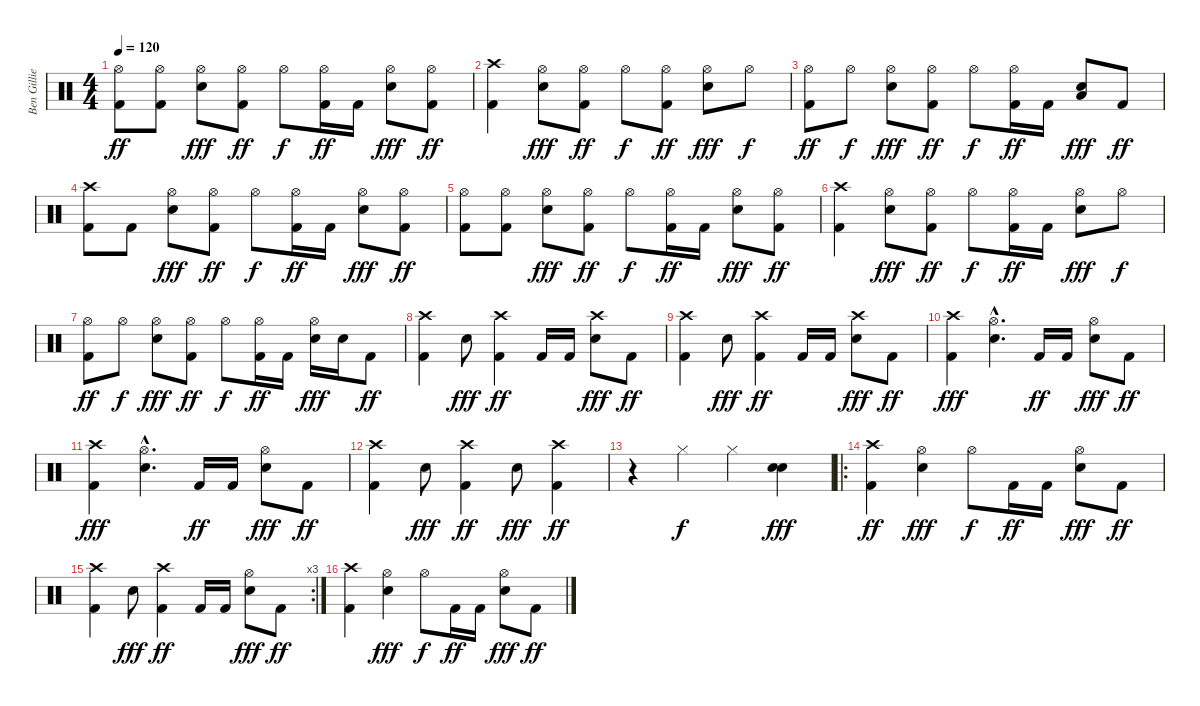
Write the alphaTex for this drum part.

\track ("Ben Gillies" "Ben Gillie") {instrument percussion}
\staff {score}
\articulation defaults
\ts (4 4)
\tempo 120
\clef neutral
\ks c
("Hi-Hat (open)" "Kick (hit) 2").8{dy ff} ("Hi-Hat (open)" "Kick (hit) 2").8 ("Hi-Hat (open)" "Electric Snare (hit)").8{dy fff} ("Hi-Hat (open)" "Kick (hit) 2").8{dy ff} "Hi-Hat (open)".8{dy f} ("Hi-Hat (open)" "Kick (hit) 2").16{dy ff} "Kick (hit) 2".16 ("Hi-Hat (open)" "Electric Snare (hit)").8{dy fff} ("Hi-Hat (open)" "Kick (hit) 2").8{dy ff} |
("Crash high (hit)" "Kick (hit) 2").4 ("Hi-Hat (open)" "Electric Snare (hit)").8{dy fff} ("Hi-Hat (open)" "Kick (hit) 2").8{dy ff} "Hi-Hat (open)".8{dy f} ("Hi-Hat (open)" "Kick (hit) 2").8{dy ff} ("Hi-Hat (open)" "Electric Snare (hit)").8{dy fff} "Hi-Hat (open)".8{dy f} |
("Hi-Hat (open)" "Kick (hit) 2").8{dy ff} "Hi-Hat (open)".8{dy f} ("Hi-Hat (open)" "Electric Snare (hit)").8{dy fff} ("Hi-Hat (open)" "Kick (hit) 2").8{dy ff} "Hi-Hat (open)".8{dy f} ("Hi-Hat (open)" "Kick (hit) 2").16{dy ff} "Kick (hit) 2".16 ("Low Floor Tom (hit)" "Electric Snare (hit)").8{dy fff} "Kick (hit) 2".8{dy ff} |
("Crash high (hit)" "Kick (hit) 2").8 "Kick (hit) 2".8 ("Hi-Hat (open)" "Electric Snare (hit)").8{dy fff} ("Hi-Hat (open)" "Kick (hit) 2").8{dy ff} "Hi-Hat (open)".8{dy f} ("Hi-Hat (open)" "Kick (hit) 2").16{dy ff} "Kick (hit) 2".16 ("Hi-Hat (open)" "Electric Snare (hit)").8{dy fff} ("Hi-Hat (open)" "Kick (hit) 2").8{dy ff} |
("Hi-Hat (open)" "Kick (hit) 2").8 ("Hi-Hat (open)" "Kick (hit) 2").8 ("Hi-Hat (open)" "Electric Snare (hit)").8{dy fff} ("Hi-Hat (open)" "Kick (hit) 2").8{dy ff} "Hi-Hat (open)".8{dy f} ("Hi-Hat (open)" "Kick (hit) 2").16{dy ff} "Kick (hit) 2".16 ("Hi-Hat (open)" "Electric Snare (hit)").8{dy fff} ("Hi-Hat (open)" "Kick (hit) 2").8{dy ff} |
("Crash high (hit)" "Kick (hit) 2").4 ("Hi-Hat (open)" "Electric Snare (hit)").8{dy fff} ("Hi-Hat (open)" "Kick (hit) 2").8{dy ff} "Hi-Hat (open)".8{dy f} ("Hi-Hat (open)" "Kick (hit) 2").16{dy ff} "Kick (hit) 2".16 ("Hi-Hat (open)" "Electric Snare (hit)").8{dy fff} "Hi-Hat (open)".8{dy f} |
("Hi-Hat (open)" "Kick (hit) 2").8{dy ff} "Hi-Hat (open)".8{dy f} ("Hi-Hat (open)" "Electric Snare (hit)").8{dy fff} ("Hi-Hat (open)" "Kick (hit) 2").8{dy ff} "Hi-Hat (open)".8{dy f} ("Hi-Hat (open)" "Kick (hit) 2").16{dy ff} "Kick (hit) 2".16 ("Hi-Hat (open)" "Electric Snare (hit)").16{dy fff} "Electric Snare (hit)".16 "Kick (hit) 2".8{dy ff} |
("Crash high (hit)" "Kick (hit) 2").4 "Electric Snare (hit)".8{dy fff} ("Crash high (hit)" "Kick (hit) 2").4{dy ff} "Kick (hit) 2".16 "Kick (hit) 2".16 ("Crash high (hit)" "Electric Snare (hit)").8{dy fff} "Kick (hit) 2".8{dy ff} |
("Crash high (hit)" "Kick (hit) 2").4 "Electric Snare (hit)".8{dy fff} ("Crash high (hit)" "Kick (hit) 2").4{dy ff} "Kick (hit) 2".16 "Kick (hit) 2".16 ("Crash high (hit)" "Electric Snare (hit)").8{dy fff} "Kick (hit) 2".8{dy ff} |
("Crash high (hit)" "Kick (hit) 2").4{dy fff} ("Hi-Hat (open)"{hac} "Electric Snare (hit)"{hac}).4{d} "Kick (hit) 2".16{dy ff} "Kick (hit) 2".16 ("Hi-Hat (open)" "Electric Snare (hit)").8{dy fff} "Kick (hit) 2".8{dy ff} |
("Crash high (hit)" "Kick (hit) 2").4{dy fff} ("Hi-Hat (open)"{hac} "Electric Snare (hit)"{hac}).4{d} "Kick (hit) 2".16{dy ff} "Kick (hit) 2".16 ("Hi-Hat (open)" "Electric Snare (hit)").8{dy fff} "Kick (hit) 2".8{dy ff} |
("Crash high (hit)" "Kick (hit) 2").4 "Electric Snare (hit)".8{dy fff} ("Crash high (hit)" "Kick (hit) 2").4{dy ff} "Electric Snare (hit)".8{dy fff} ("Crash high (hit)" "Kick (hit) 2").4{dy ff} |
r.4 "Hi-Hat (closed)".4{dy f} "Hi-Hat (closed)".4 ("Electric Snare (hit)" "Electric Snare (hit)").4{dy fff} |
\ro
("Crash high (hit)" "Kick (hit) 2").4{dy ff} ("Hi-Hat (open)" "Electric Snare (hit)").4{dy fff} "Hi-Hat (open)".8{dy f} "Kick (hit) 2".16{dy ff} "Kick (hit) 2".16 ("Hi-Hat (open)" "Electric Snare (hit)").8{dy fff} "Kick (hit) 2".8{dy ff} |
\rc 3
("Crash high (hit)" "Kick (hit) 2").4 "Electric Snare (hit)".8{dy fff} ("Crash high (hit)" "Kick (hit) 2").4{dy ff} "Kick (hit) 2".16 "Kick (hit) 2".16 ("Hi-Hat (open)" "Electric Snare (hit)").8{dy fff} "Kick (hit) 2".8{dy ff} |
("Crash high (hit)" "Kick (hit) 2").4 ("Hi-Hat (open)" "Electric Snare (hit)").4{dy fff} "Hi-Hat (open)".8{dy f} "Kick (hit) 2".16{dy ff} "Kick (hit) 2".16 ("Hi-Hat (open)" "Electric Snare (hit)").8{dy fff} "Kick (hit) 2".8{dy ff}
